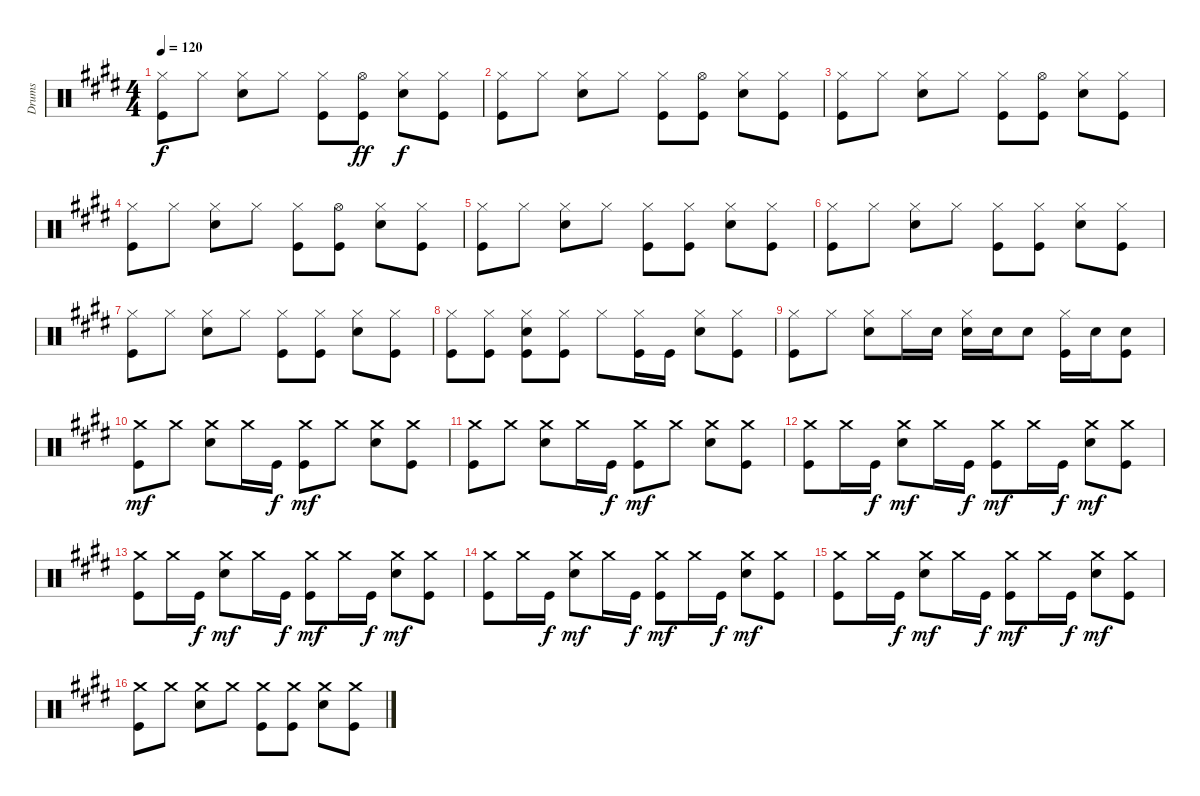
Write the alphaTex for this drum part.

\track ("Drums" "Drums") {instrument percussion}
\staff {score}
\articulation defaults
\ts (4 4)
\tempo 120
\clef neutral
\ks e
("Hi-Hat (closed)" "Kick (hit)").8{dy f} "Hi-Hat (closed)".8 ("Hi-Hat (closed)" "Snare (hit) 2").8 "Hi-Hat (closed)".8 ("Hi-Hat (closed)" "Kick (hit)").8 ("Hi-Hat (open)" "Kick (hit)").8{dy ff} ("Hi-Hat (closed)" "Snare (hit) 2").8{dy f} ("Hi-Hat (closed)" "Kick (hit)").8 |
("Hi-Hat (closed)" "Kick (hit)").8 "Hi-Hat (closed)".8 ("Hi-Hat (closed)" "Snare (hit) 2").8 "Hi-Hat (closed)".8 ("Hi-Hat (closed)" "Kick (hit)").8 ("Hi-Hat (open)" "Kick (hit)").8 ("Hi-Hat (closed)" "Snare (hit) 2").8 ("Hi-Hat (closed)" "Kick (hit)").8 |
("Hi-Hat (closed)" "Kick (hit)").8 "Hi-Hat (closed)".8 ("Hi-Hat (closed)" "Snare (hit) 2").8 "Hi-Hat (closed)".8 ("Hi-Hat (closed)" "Kick (hit)").8 ("Hi-Hat (open)" "Kick (hit)").8 ("Hi-Hat (closed)" "Snare (hit) 2").8 ("Hi-Hat (closed)" "Kick (hit)").8 |
("Hi-Hat (closed)" "Kick (hit)").8 "Hi-Hat (closed)".8 ("Hi-Hat (closed)" "Snare (hit) 2").8 "Hi-Hat (closed)".8 ("Hi-Hat (closed)" "Kick (hit)").8 ("Hi-Hat (open)" "Kick (hit)").8 ("Hi-Hat (closed)" "Snare (hit) 2").8 ("Hi-Hat (closed)" "Kick (hit)").8 |
("Hi-Hat (closed)" "Kick (hit)").8 "Hi-Hat (closed)".8 ("Hi-Hat (closed)" "Snare (hit) 2").8 "Hi-Hat (closed)".8 ("Hi-Hat (closed)" "Kick (hit)").8 ("Hi-Hat (closed)" "Kick (hit)").8 ("Hi-Hat (closed)" "Snare (hit) 2").8 ("Hi-Hat (closed)" "Kick (hit)").8 |
("Hi-Hat (closed)" "Kick (hit)").8 "Hi-Hat (closed)".8 ("Hi-Hat (closed)" "Snare (hit) 2").8 "Hi-Hat (closed)".8 ("Hi-Hat (closed)" "Kick (hit)").8 ("Hi-Hat (closed)" "Kick (hit)").8 ("Hi-Hat (closed)" "Snare (hit) 2").8 ("Hi-Hat (closed)" "Kick (hit)").8 |
("Hi-Hat (closed)" "Kick (hit)").8 "Hi-Hat (closed)".8 ("Hi-Hat (closed)" "Snare (hit) 2").8 "Hi-Hat (closed)".8 ("Hi-Hat (closed)" "Kick (hit)").8 ("Hi-Hat (closed)" "Kick (hit)").8 ("Hi-Hat (closed)" "Snare (hit) 2").8 ("Hi-Hat (closed)" "Kick (hit)").8 |
("Hi-Hat (closed)" "Kick (hit)").8 ("Hi-Hat (closed)" "Kick (hit)").8 ("Hi-Hat (closed)" "Snare (hit) 2" "Kick (hit)").8 ("Hi-Hat (closed)" "Kick (hit)").8 "Hi-Hat (closed)".8 ("Hi-Hat (closed)" "Kick (hit)").16 "Kick (hit)".16 ("Hi-Hat (closed)" "Snare (hit) 2").8 ("Hi-Hat (closed)" "Kick (hit)").8 |
("Hi-Hat (closed)" "Kick (hit)").8 "Hi-Hat (closed)".8 ("Hi-Hat (closed)" "Snare (hit) 2").8 "Hi-Hat (closed)".16 "Snare (hit) 2".16 ("Hi-Hat (closed)" "Snare (hit) 2").16 "Snare (hit) 2".16 "Snare (hit) 2".8 ("Hi-Hat (closed)" "Kick (hit)").16 "Snare (hit) 2".16 ("Snare (hit) 2" "Kick (hit)").8 |
("Crash medium (hit)" "Kick (hit)").8{dy mf} "Crash medium (hit)".8 ("Crash medium (hit)" "Snare (hit) 2").8 "Crash medium (hit)".16 "Kick (hit)".16{dy f} ("Crash medium (hit)" "Kick (hit)").8{dy mf} "Crash medium (hit)".8 ("Crash medium (hit)" "Snare (hit) 2").8 ("Crash medium (hit)" "Kick (hit)").8 |
("Crash medium (hit)" "Kick (hit)").8 "Crash medium (hit)".8 ("Crash medium (hit)" "Snare (hit) 2").8 "Crash medium (hit)".16 "Kick (hit)".16{dy f} ("Crash medium (hit)" "Kick (hit)").8{dy mf} "Crash medium (hit)".8 ("Crash medium (hit)" "Snare (hit) 2").8 ("Crash medium (hit)" "Kick (hit)").8 |
("Crash medium (hit)" "Kick (hit)").8 "Crash medium (hit)".16 "Kick (hit)".16{dy f} ("Crash medium (hit)" "Snare (hit) 2").8{dy mf} "Crash medium (hit)".16 "Kick (hit)".16{dy f} ("Crash medium (hit)" "Kick (hit)").8{dy mf} "Crash medium (hit)".16 "Kick (hit)".16{dy f} ("Crash medium (hit)" "Snare (hit) 2").8{dy mf} ("Crash medium (hit)" "Kick (hit)").8 |
("Crash medium (hit)" "Kick (hit)").8 "Crash medium (hit)".16 "Kick (hit)".16{dy f} ("Crash medium (hit)" "Snare (hit) 2").8{dy mf} "Crash medium (hit)".16 "Kick (hit)".16{dy f} ("Crash medium (hit)" "Kick (hit)").8{dy mf} "Crash medium (hit)".16 "Kick (hit)".16{dy f} ("Crash medium (hit)" "Snare (hit) 2").8{dy mf} ("Crash medium (hit)" "Kick (hit)").8 |
("Crash medium (hit)" "Kick (hit)").8 "Crash medium (hit)".16 "Kick (hit)".16{dy f} ("Crash medium (hit)" "Snare (hit) 2").8{dy mf} "Crash medium (hit)".16 "Kick (hit)".16{dy f} ("Crash medium (hit)" "Kick (hit)").8{dy mf} "Crash medium (hit)".16 "Kick (hit)".16{dy f} ("Crash medium (hit)" "Snare (hit) 2").8{dy mf} ("Crash medium (hit)" "Kick (hit)").8 |
("Crash medium (hit)" "Kick (hit)").8 "Crash medium (hit)".16 "Kick (hit)".16{dy f} ("Crash medium (hit)" "Snare (hit) 2").8{dy mf} "Crash medium (hit)".16 "Kick (hit)".16{dy f} ("Crash medium (hit)" "Kick (hit)").8{dy mf} "Crash medium (hit)".16 "Kick (hit)".16{dy f} ("Crash medium (hit)" "Snare (hit) 2").8{dy mf} ("Crash medium (hit)" "Kick (hit)").8 |
("Crash medium (hit)" "Kick (hit)").8 "Crash medium (hit)".8 ("Crash medium (hit)" "Snare (hit) 2").8 "Crash medium (hit)".8 ("Crash medium (hit)" "Kick (hit)").8 ("Crash medium (hit)" "Kick (hit)").8 ("Crash medium (hit)" "Snare (hit) 2").8 ("Crash medium (hit)" "Kick (hit)").8
